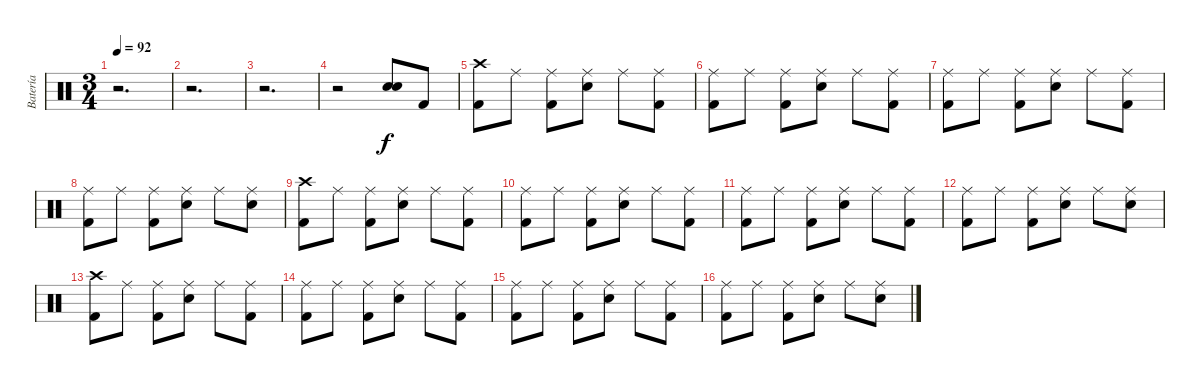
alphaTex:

\track ("Batería" "Batería") {instrument percussion}
\staff {score}
\articulation defaults
\ts (3 4)
\tempo 92
\clef neutral
\ks c
r.2{d dy f} |
r.2{d} |
r.2{d} |
r.2 ("Snare (hit) 2" "Snare (hit) 2").8{bd 240} "Kick (hit) 2".8 |
("Crash high (hit)" "Kick (hit) 2").8 "Ride (middle)".8 ("Ride (middle)" "Kick (hit) 2").8 ("Ride (middle)" "Snare (hit) 2").8 "Ride (middle)".8 ("Ride (middle)" "Kick (hit) 2").8 |
("Ride (middle)" "Kick (hit) 2").8 "Ride (middle)".8 ("Ride (middle)" "Kick (hit) 2").8 ("Ride (middle)" "Snare (hit) 2").8 "Ride (middle)".8 ("Ride (middle)" "Kick (hit) 2").8 |
("Ride (middle)" "Kick (hit) 2").8 "Ride (middle)".8 ("Ride (middle)" "Kick (hit) 2").8 ("Ride (middle)" "Snare (hit) 2").8 "Ride (middle)".8 ("Ride (middle)" "Kick (hit) 2").8 |
("Ride (middle)" "Kick (hit) 2").8 "Ride (middle)".8 ("Ride (middle)" "Kick (hit) 2").8 ("Ride (middle)" "Snare (hit) 2").8 "Ride (middle)".8 ("Ride (middle)" "Snare (hit) 2").8 |
("Crash high (hit)" "Kick (hit) 2").8 "Ride (middle)".8 ("Ride (middle)" "Kick (hit) 2").8 ("Ride (middle)" "Snare (hit) 2").8 "Ride (middle)".8 ("Ride (middle)" "Kick (hit) 2").8 |
("Ride (middle)" "Kick (hit) 2").8 "Ride (middle)".8 ("Ride (middle)" "Kick (hit) 2").8 ("Ride (middle)" "Snare (hit) 2").8 "Ride (middle)".8 ("Ride (middle)" "Kick (hit) 2").8 |
("Ride (middle)" "Kick (hit) 2").8 "Ride (middle)".8 ("Ride (middle)" "Kick (hit) 2").8 ("Ride (middle)" "Snare (hit) 2").8 "Ride (middle)".8 ("Ride (middle)" "Kick (hit) 2").8 |
("Ride (middle)" "Kick (hit) 2").8 "Ride (middle)".8 ("Ride (middle)" "Kick (hit) 2").8 ("Ride (middle)" "Snare (hit) 2").8 "Ride (middle)".8 ("Ride (middle)" "Snare (hit) 2").8 |
("Crash high (hit)" "Kick (hit) 2").8 "Ride (middle)".8 ("Ride (middle)" "Kick (hit) 2").8 ("Ride (middle)" "Snare (hit) 2").8 "Ride (middle)".8 ("Ride (middle)" "Kick (hit) 2").8 |
("Ride (middle)" "Kick (hit) 2").8 "Ride (middle)".8 ("Ride (middle)" "Kick (hit) 2").8 ("Ride (middle)" "Snare (hit) 2").8 "Ride (middle)".8 ("Ride (middle)" "Kick (hit) 2").8 |
("Ride (middle)" "Kick (hit) 2").8 "Ride (middle)".8 ("Ride (middle)" "Kick (hit) 2").8 ("Ride (middle)" "Snare (hit) 2").8 "Ride (middle)".8 ("Ride (middle)" "Kick (hit) 2").8 |
("Ride (middle)" "Kick (hit) 2").8 "Ride (middle)".8 ("Ride (middle)" "Kick (hit) 2").8 ("Ride (middle)" "Snare (hit) 2").8 "Ride (middle)".8 ("Ride (middle)" "Snare (hit) 2").8
